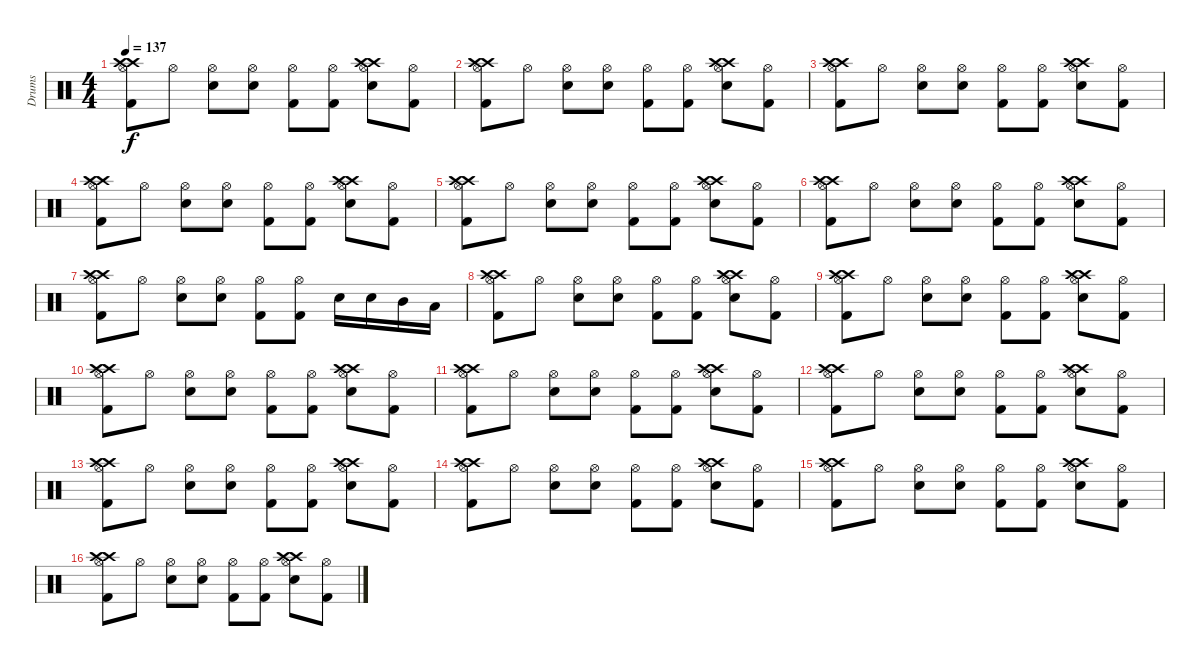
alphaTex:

\track ("Drums" "Drums") {instrument percussion}
\staff {score}
\articulation defaults
\ts (4 4)
\tempo 137
\clef neutral
\ks c
("Crash high (hit)" "Crash high (hit)" "Hi-Hat (open)" "Kick (hit) 2").8{dy f} "Hi-Hat (open)".8 ("Hi-Hat (open)" "Snare (hit) 2").8 ("Hi-Hat (open)" "Snare (hit) 2").8 ("Hi-Hat (open)" "Kick (hit) 2").8 ("Hi-Hat (open)" "Kick (hit) 2").8 ("Crash high (hit)" "Crash high (hit)" "Hi-Hat (open)" "Snare (hit) 2").8 ("Hi-Hat (open)" "Kick (hit) 2").8 |
("Crash high (hit)" "Crash high (hit)" "Hi-Hat (open)" "Kick (hit) 2").8 "Hi-Hat (open)".8 ("Hi-Hat (open)" "Snare (hit) 2").8 ("Hi-Hat (open)" "Snare (hit) 2").8 ("Hi-Hat (open)" "Kick (hit) 2").8 ("Hi-Hat (open)" "Kick (hit) 2").8 ("Crash high (hit)" "Crash high (hit)" "Hi-Hat (open)" "Snare (hit) 2").8 ("Hi-Hat (open)" "Kick (hit) 2").8 |
("Crash high (hit)" "Crash high (hit)" "Hi-Hat (open)" "Kick (hit) 2").8 "Hi-Hat (open)".8 ("Hi-Hat (open)" "Snare (hit) 2").8 ("Hi-Hat (open)" "Snare (hit) 2").8 ("Hi-Hat (open)" "Kick (hit) 2").8 ("Hi-Hat (open)" "Kick (hit) 2").8 ("Crash high (hit)" "Crash high (hit)" "Hi-Hat (open)" "Snare (hit) 2").8 ("Hi-Hat (open)" "Kick (hit) 2").8 |
("Crash high (hit)" "Crash high (hit)" "Hi-Hat (open)" "Kick (hit) 2").8 "Hi-Hat (open)".8 ("Hi-Hat (open)" "Snare (hit) 2").8 ("Hi-Hat (open)" "Snare (hit) 2").8 ("Hi-Hat (open)" "Kick (hit) 2").8 ("Hi-Hat (open)" "Kick (hit) 2").8 ("Crash high (hit)" "Crash high (hit)" "Hi-Hat (open)" "Snare (hit) 2").8 ("Hi-Hat (open)" "Kick (hit) 2").8 |
("Crash high (hit)" "Crash high (hit)" "Hi-Hat (open)" "Kick (hit) 2").8 "Hi-Hat (open)".8 ("Hi-Hat (open)" "Snare (hit) 2").8 ("Hi-Hat (open)" "Snare (hit) 2").8 ("Hi-Hat (open)" "Kick (hit) 2").8 ("Hi-Hat (open)" "Kick (hit) 2").8 ("Crash high (hit)" "Crash high (hit)" "Hi-Hat (open)" "Snare (hit) 2").8 ("Hi-Hat (open)" "Kick (hit) 2").8 |
("Crash high (hit)" "Crash high (hit)" "Hi-Hat (open)" "Kick (hit) 2").8 "Hi-Hat (open)".8 ("Hi-Hat (open)" "Snare (hit) 2").8 ("Hi-Hat (open)" "Snare (hit) 2").8 ("Hi-Hat (open)" "Kick (hit) 2").8 ("Hi-Hat (open)" "Kick (hit) 2").8 ("Crash high (hit)" "Crash high (hit)" "Hi-Hat (open)" "Snare (hit) 2").8 ("Hi-Hat (open)" "Kick (hit) 2").8 |
("Crash high (hit)" "Crash high (hit)" "Hi-Hat (open)" "Kick (hit) 2").8 "Hi-Hat (open)".8 ("Hi-Hat (open)" "Snare (hit) 2").8 ("Hi-Hat (open)" "Snare (hit) 2").8 ("Hi-Hat (open)" "Kick (hit) 2").8 ("Hi-Hat (open)" "Kick (hit) 2").8 "Snare (hit) 2".16 "Snare (hit) 2".16 "Mid Tom (hit)".16 "Low Tom (hit)".16 |
("Crash high (hit)" "Crash high (hit)" "Hi-Hat (open)" "Kick (hit) 2").8 "Hi-Hat (open)".8 ("Hi-Hat (open)" "Snare (hit) 2").8 ("Hi-Hat (open)" "Snare (hit) 2").8 ("Hi-Hat (open)" "Kick (hit) 2").8 ("Hi-Hat (open)" "Kick (hit) 2").8 ("Crash high (hit)" "Crash high (hit)" "Hi-Hat (open)" "Snare (hit) 2").8 ("Hi-Hat (open)" "Kick (hit) 2").8 |
("Crash high (hit)" "Crash high (hit)" "Hi-Hat (open)" "Kick (hit) 2").8 "Hi-Hat (open)".8 ("Hi-Hat (open)" "Snare (hit) 2").8 ("Hi-Hat (open)" "Snare (hit) 2").8 ("Hi-Hat (open)" "Kick (hit) 2").8 ("Hi-Hat (open)" "Kick (hit) 2").8 ("Crash high (hit)" "Crash high (hit)" "Hi-Hat (open)" "Snare (hit) 2").8 ("Hi-Hat (open)" "Kick (hit) 2").8 |
("Crash high (hit)" "Crash high (hit)" "Hi-Hat (open)" "Kick (hit) 2").8 "Hi-Hat (open)".8 ("Hi-Hat (open)" "Snare (hit) 2").8 ("Hi-Hat (open)" "Snare (hit) 2").8 ("Hi-Hat (open)" "Kick (hit) 2").8 ("Hi-Hat (open)" "Kick (hit) 2").8 ("Crash high (hit)" "Crash high (hit)" "Hi-Hat (open)" "Snare (hit) 2").8 ("Hi-Hat (open)" "Kick (hit) 2").8 |
("Crash high (hit)" "Crash high (hit)" "Hi-Hat (open)" "Kick (hit) 2").8 "Hi-Hat (open)".8 ("Hi-Hat (open)" "Snare (hit) 2").8 ("Hi-Hat (open)" "Snare (hit) 2").8 ("Hi-Hat (open)" "Kick (hit) 2").8 ("Hi-Hat (open)" "Kick (hit) 2").8 ("Crash high (hit)" "Crash high (hit)" "Hi-Hat (open)" "Snare (hit) 2").8 ("Hi-Hat (open)" "Kick (hit) 2").8 |
("Crash high (hit)" "Crash high (hit)" "Hi-Hat (open)" "Kick (hit) 2").8 "Hi-Hat (open)".8 ("Hi-Hat (open)" "Snare (hit) 2").8 ("Hi-Hat (open)" "Snare (hit) 2").8 ("Hi-Hat (open)" "Kick (hit) 2").8 ("Hi-Hat (open)" "Kick (hit) 2").8 ("Crash high (hit)" "Crash high (hit)" "Hi-Hat (open)" "Snare (hit) 2").8 ("Hi-Hat (open)" "Kick (hit) 2").8 |
("Crash high (hit)" "Crash high (hit)" "Hi-Hat (open)" "Kick (hit) 2").8 "Hi-Hat (open)".8 ("Hi-Hat (open)" "Snare (hit) 2").8 ("Hi-Hat (open)" "Snare (hit) 2").8 ("Hi-Hat (open)" "Kick (hit) 2").8 ("Hi-Hat (open)" "Kick (hit) 2").8 ("Crash high (hit)" "Crash high (hit)" "Hi-Hat (open)" "Snare (hit) 2").8 ("Hi-Hat (open)" "Kick (hit) 2").8 |
("Crash high (hit)" "Crash high (hit)" "Hi-Hat (open)" "Kick (hit) 2").8 "Hi-Hat (open)".8 ("Hi-Hat (open)" "Snare (hit) 2").8 ("Hi-Hat (open)" "Snare (hit) 2").8 ("Hi-Hat (open)" "Kick (hit) 2").8 ("Hi-Hat (open)" "Kick (hit) 2").8 ("Crash high (hit)" "Crash high (hit)" "Hi-Hat (open)" "Snare (hit) 2").8 ("Hi-Hat (open)" "Kick (hit) 2").8 |
("Crash high (hit)" "Crash high (hit)" "Hi-Hat (open)" "Kick (hit) 2").8 "Hi-Hat (open)".8 ("Hi-Hat (open)" "Snare (hit) 2").8 ("Hi-Hat (open)" "Snare (hit) 2").8 ("Hi-Hat (open)" "Kick (hit) 2").8 ("Hi-Hat (open)" "Kick (hit) 2").8 ("Crash high (hit)" "Crash high (hit)" "Hi-Hat (open)" "Snare (hit) 2").8 ("Hi-Hat (open)" "Kick (hit) 2").8 |
("Crash high (hit)" "Crash high (hit)" "Hi-Hat (open)" "Kick (hit) 2").8 "Hi-Hat (open)".8 ("Hi-Hat (open)" "Snare (hit) 2").8 ("Hi-Hat (open)" "Snare (hit) 2").8 ("Hi-Hat (open)" "Kick (hit) 2").8 ("Hi-Hat (open)" "Kick (hit) 2").8 ("Crash high (hit)" "Crash high (hit)" "Hi-Hat (open)" "Snare (hit) 2").8 ("Hi-Hat (open)" "Kick (hit) 2").8
